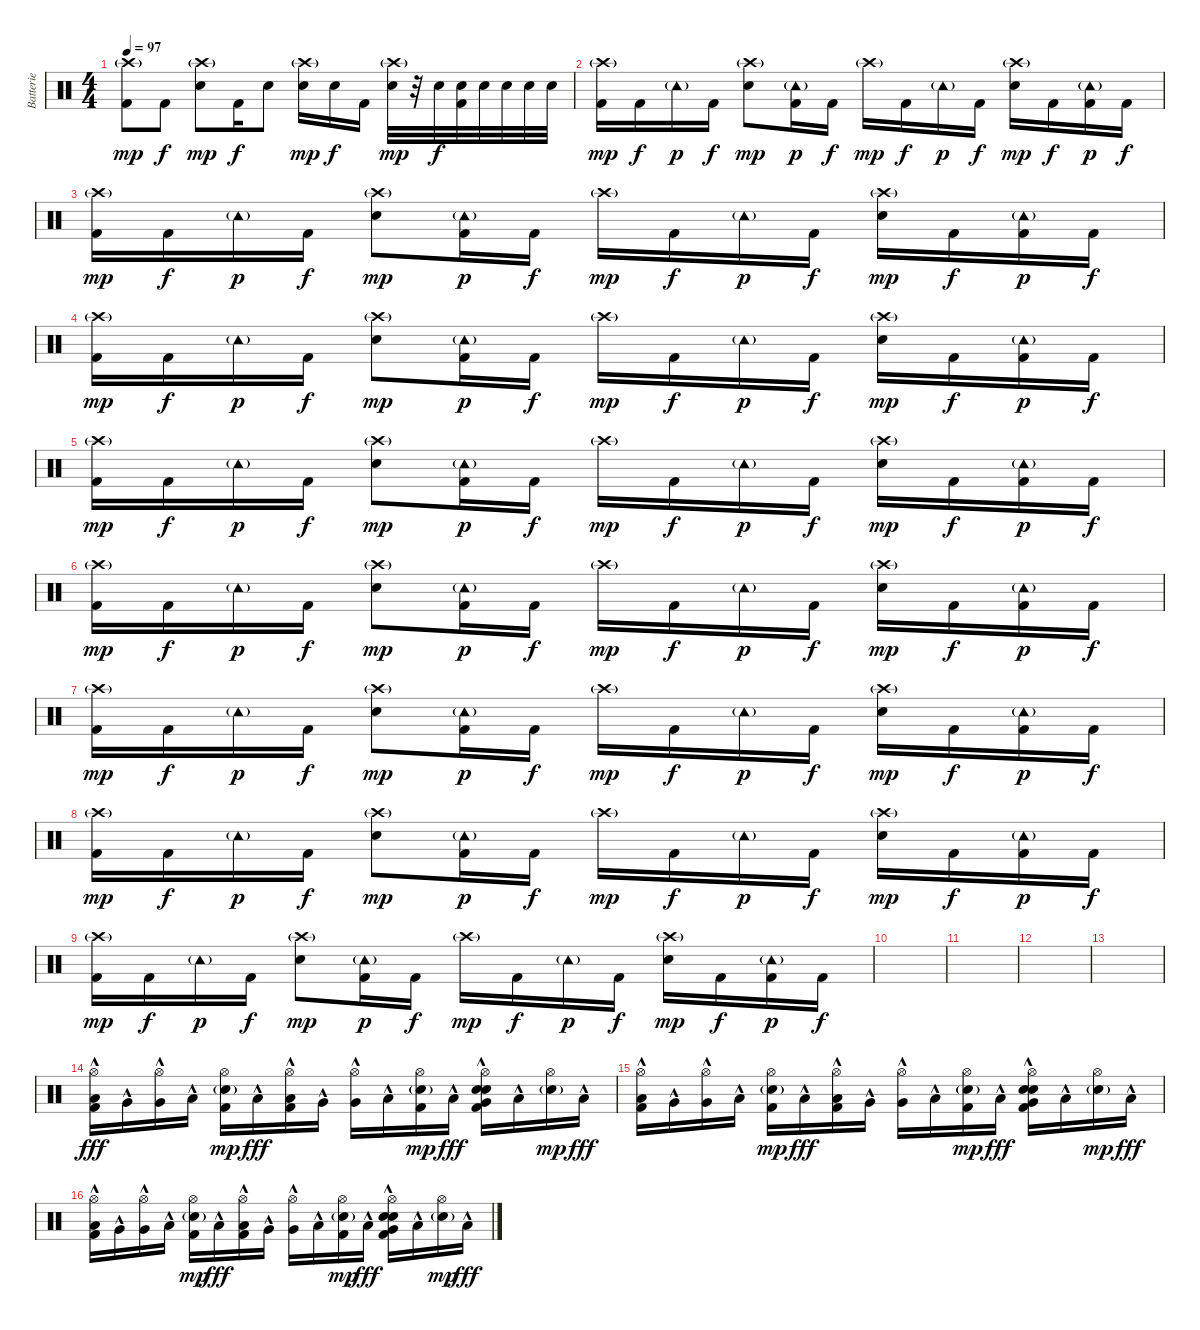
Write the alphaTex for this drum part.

\track ("Batterie" "Batterie") {instrument percussion}
\staff {score}
\articulation defaults
\ts (4 4)
\tempo 97
\clef neutral
\ks c
("Crash high (hit)"{g} "Kick (hit) 2").8{dy mp} "Kick (hit) 2".8{dy f} ("Crash high (hit)"{g} "Snare (hit) 2").8{dy mp} "Kick (hit) 2".16{dy f} "Snare (hit) 2".8 ("Crash high (hit)"{g} "Snare (hit) 2").16{dy mp} "Snare (hit) 2".16{dy f} "Kick (hit) 2".16 ("Crash high (hit)"{g} "Snare (hit) 2").32{dy mp} r.32 "Snare (hit) 2".32{dy f} ("Snare (hit) 2" "Kick (hit) 2").32 "Snare (hit) 2".32 "Snare (hit) 2".32 "Snare (hit) 2".32 "Snare (hit) 2".32 |
("Crash high (hit)"{g} "Kick (hit) 2").16{dy mp} "Kick (hit) 2".16{dy f} "Tambourine (hit)"{g}.16{dy p} "Kick (hit) 2".16{dy f} ("Crash high (hit)"{g} "Snare (hit) 2").8{dy mp} ("Tambourine (hit)"{g} "Kick (hit) 2").16{dy p} "Kick (hit) 2".16{dy f} "Crash high (hit)"{g}.16{dy mp} "Kick (hit) 2".16{dy f} "Tambourine (hit)"{g}.16{dy p} "Kick (hit) 2".16{dy f} ("Crash high (hit)"{g} "Snare (hit) 2").16{dy mp} "Kick (hit) 2".16{dy f} ("Tambourine (hit)"{g} "Kick (hit) 2").16{dy p} "Kick (hit) 2".16{dy f} |
("Crash high (hit)"{g} "Kick (hit) 2").16{dy mp} "Kick (hit) 2".16{dy f} "Tambourine (hit)"{g}.16{dy p} "Kick (hit) 2".16{dy f} ("Crash high (hit)"{g} "Snare (hit) 2").8{dy mp} ("Tambourine (hit)"{g} "Kick (hit) 2").16{dy p} "Kick (hit) 2".16{dy f} "Crash high (hit)"{g}.16{dy mp} "Kick (hit) 2".16{dy f} "Tambourine (hit)"{g}.16{dy p} "Kick (hit) 2".16{dy f} ("Crash high (hit)"{g} "Snare (hit) 2").16{dy mp} "Kick (hit) 2".16{dy f} ("Tambourine (hit)"{g} "Kick (hit) 2").16{dy p} "Kick (hit) 2".16{dy f} |
("Crash high (hit)"{g} "Kick (hit) 2").16{dy mp} "Kick (hit) 2".16{dy f} "Tambourine (hit)"{g}.16{dy p} "Kick (hit) 2".16{dy f} ("Crash high (hit)"{g} "Snare (hit) 2").8{dy mp} ("Tambourine (hit)"{g} "Kick (hit) 2").16{dy p} "Kick (hit) 2".16{dy f} "Crash high (hit)"{g}.16{dy mp} "Kick (hit) 2".16{dy f} "Tambourine (hit)"{g}.16{dy p} "Kick (hit) 2".16{dy f} ("Crash high (hit)"{g} "Snare (hit) 2").16{dy mp} "Kick (hit) 2".16{dy f} ("Tambourine (hit)"{g} "Kick (hit) 2").16{dy p} "Kick (hit) 2".16{dy f} |
("Crash high (hit)"{g} "Kick (hit) 2").16{dy mp} "Kick (hit) 2".16{dy f} "Tambourine (hit)"{g}.16{dy p} "Kick (hit) 2".16{dy f} ("Crash high (hit)"{g} "Snare (hit) 2").8{dy mp} ("Tambourine (hit)"{g} "Kick (hit) 2").16{dy p} "Kick (hit) 2".16{dy f} "Crash high (hit)"{g}.16{dy mp} "Kick (hit) 2".16{dy f} "Tambourine (hit)"{g}.16{dy p} "Kick (hit) 2".16{dy f} ("Crash high (hit)"{g} "Snare (hit) 2").16{dy mp} "Kick (hit) 2".16{dy f} ("Tambourine (hit)"{g} "Kick (hit) 2").16{dy p} "Kick (hit) 2".16{dy f} |
("Crash high (hit)"{g} "Kick (hit) 2").16{dy mp} "Kick (hit) 2".16{dy f} "Tambourine (hit)"{g}.16{dy p} "Kick (hit) 2".16{dy f} ("Crash high (hit)"{g} "Snare (hit) 2").8{dy mp} ("Tambourine (hit)"{g} "Kick (hit) 2").16{dy p} "Kick (hit) 2".16{dy f} "Crash high (hit)"{g}.16{dy mp} "Kick (hit) 2".16{dy f} "Tambourine (hit)"{g}.16{dy p} "Kick (hit) 2".16{dy f} ("Crash high (hit)"{g} "Snare (hit) 2").16{dy mp} "Kick (hit) 2".16{dy f} ("Tambourine (hit)"{g} "Kick (hit) 2").16{dy p} "Kick (hit) 2".16{dy f} |
("Crash high (hit)"{g} "Kick (hit) 2").16{dy mp} "Kick (hit) 2".16{dy f} "Tambourine (hit)"{g}.16{dy p} "Kick (hit) 2".16{dy f} ("Crash high (hit)"{g} "Snare (hit) 2").8{dy mp} ("Tambourine (hit)"{g} "Kick (hit) 2").16{dy p} "Kick (hit) 2".16{dy f} "Crash high (hit)"{g}.16{dy mp} "Kick (hit) 2".16{dy f} "Tambourine (hit)"{g}.16{dy p} "Kick (hit) 2".16{dy f} ("Crash high (hit)"{g} "Snare (hit) 2").16{dy mp} "Kick (hit) 2".16{dy f} ("Tambourine (hit)"{g} "Kick (hit) 2").16{dy p} "Kick (hit) 2".16{dy f} |
("Crash high (hit)"{g} "Kick (hit) 2").16{dy mp} "Kick (hit) 2".16{dy f} "Tambourine (hit)"{g}.16{dy p} "Kick (hit) 2".16{dy f} ("Crash high (hit)"{g} "Snare (hit) 2").8{dy mp} ("Tambourine (hit)"{g} "Kick (hit) 2").16{dy p} "Kick (hit) 2".16{dy f} "Crash high (hit)"{g}.16{dy mp} "Kick (hit) 2".16{dy f} "Tambourine (hit)"{g}.16{dy p} "Kick (hit) 2".16{dy f} ("Crash high (hit)"{g} "Snare (hit) 2").16{dy mp} "Kick (hit) 2".16{dy f} ("Tambourine (hit)"{g} "Kick (hit) 2").16{dy p} "Kick (hit) 2".16{dy f} |
("Crash high (hit)"{g} "Kick (hit) 2").16{dy mp} "Kick (hit) 2".16{dy f} "Tambourine (hit)"{g}.16{dy p} "Kick (hit) 2".16{dy f} ("Crash high (hit)"{g} "Snare (hit) 2").8{dy mp} ("Tambourine (hit)"{g} "Kick (hit) 2").16{dy p} "Kick (hit) 2".16{dy f} "Crash high (hit)"{g}.16{dy mp} "Kick (hit) 2".16{dy f} "Tambourine (hit)"{g}.16{dy p} "Kick (hit) 2".16{dy f} ("Crash high (hit)"{g} "Snare (hit) 2").16{dy mp} "Kick (hit) 2".16{dy f} ("Tambourine (hit)"{g} "Kick (hit) 2").16{dy p} "Kick (hit) 2".16{dy f} |
|
|
|
|
("Hi-Hat (open)" "Low Tom (hit)"{hac} "Kick (hit) 2").16{dy fff volume 4} "Very Low Tom (hit)"{hac}.16 ("Hi-Hat (open)" "Very Low Tom (hit)"{hac}).16 "Low Floor Tom (hit)"{hac}.16 ("Hi-Hat (open)" "Snare (hit) 2"{g} "Kick (hit) 2").16{dy mp} "Low Floor Tom (hit)"{hac}.16{dy fff} ("Hi-Hat (open)" "Low Tom (hit)"{hac} "Kick (hit) 2").16 "Very Low Tom (hit)"{hac}.16 ("Hi-Hat (open)" "Very Low Tom (hit)"{hac}).16 "Low Floor Tom (hit)"{hac}.16 ("Hi-Hat (open)" "Snare (hit) 2"{g} "Kick (hit) 2").16{dy mp} "Low Floor Tom (hit)"{hac}.16{dy fff} ("Hi-Hat (open)" "Very Low Tom (hit)"{hac} "Electric Snare (hit)"{hac} "Snare (hit) 2"{hac} "Kick (hit) 2").16 "Low Floor Tom (hit)"{hac}.16 ("Hi-Hat (open)" "Snare (hit) 2"{g}).16{dy mp} "Low Floor Tom (hit)"{hac}.16{dy fff} |
("Hi-Hat (open)" "Low Tom (hit)"{hac} "Kick (hit) 2").16 "Very Low Tom (hit)"{hac}.16 ("Hi-Hat (open)" "Very Low Tom (hit)"{hac}).16 "Low Floor Tom (hit)"{hac}.16 ("Hi-Hat (open)" "Snare (hit) 2"{g} "Kick (hit) 2").16{dy mp} "Low Floor Tom (hit)"{hac}.16{dy fff} ("Hi-Hat (open)" "Low Tom (hit)"{hac} "Kick (hit) 2").16 "Very Low Tom (hit)"{hac}.16 ("Hi-Hat (open)" "Very Low Tom (hit)"{hac}).16 "Low Floor Tom (hit)"{hac}.16 ("Hi-Hat (open)" "Snare (hit) 2"{g} "Kick (hit) 2").16{dy mp} "Low Floor Tom (hit)"{hac}.16{dy fff} ("Hi-Hat (open)" "Very Low Tom (hit)"{hac} "Electric Snare (hit)"{hac} "Snare (hit) 2"{hac} "Kick (hit) 2").16 "Low Floor Tom (hit)"{hac}.16 ("Hi-Hat (open)" "Snare (hit) 2"{g}).16{dy mp} "Low Floor Tom (hit)"{hac}.16{dy fff} |
("Hi-Hat (open)" "Low Tom (hit)"{hac} "Kick (hit) 2").16 "Very Low Tom (hit)"{hac}.16 ("Hi-Hat (open)" "Very Low Tom (hit)"{hac}).16 "Low Floor Tom (hit)"{hac}.16 ("Hi-Hat (open)" "Snare (hit) 2"{g} "Kick (hit) 2").16{dy mp} "Low Floor Tom (hit)"{hac}.16{dy fff} ("Hi-Hat (open)" "Low Tom (hit)"{hac} "Kick (hit) 2").16 "Very Low Tom (hit)"{hac}.16 ("Hi-Hat (open)" "Very Low Tom (hit)"{hac}).16 "Low Floor Tom (hit)"{hac}.16 ("Hi-Hat (open)" "Snare (hit) 2"{g} "Kick (hit) 2").16{dy mp} "Low Floor Tom (hit)"{hac}.16{dy fff} ("Hi-Hat (open)" "Very Low Tom (hit)"{hac} "Electric Snare (hit)"{hac} "Snare (hit) 2"{hac} "Kick (hit) 2").16 "Low Floor Tom (hit)"{hac}.16 ("Hi-Hat (open)" "Snare (hit) 2"{g}).16{dy mp} "Low Floor Tom (hit)"{hac}.16{dy fff}
